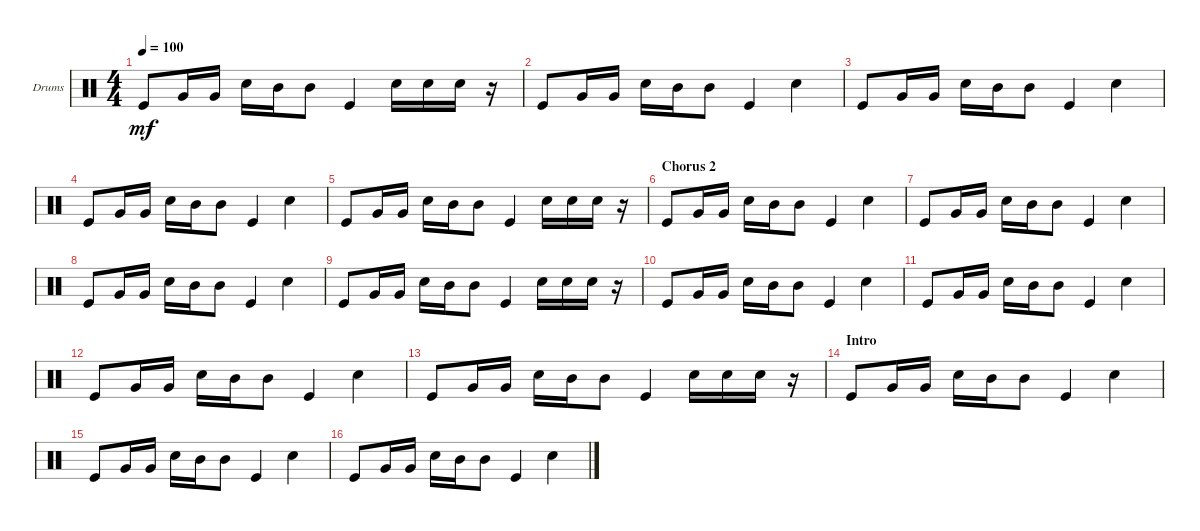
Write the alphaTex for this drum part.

\defaultSystemsLayout 4
\bracketExtendMode groupsimilarinstruments
\firstSystemTrackNameOrientation horizontal
\otherSystemsTrackNameOrientation horizontal
\track ("Dominic Howard" "Drums") {instrument percussion}
\staff {score}
\articulation defaults
\ts (4 4)
\tempo 100
\clef neutral
\ks c "Kick (hit)".8{dy mf} "Very Low Tom (hit)".16 "Very Low Tom (hit)".16 "Snare (hit) 2".16 "Mid Tom (hit)".16 "Mid Tom (hit)".8 "Kick (hit)".4 "Snare (hit) 2".16 "Snare (hit) 2".16 "Snare (hit) 2".16
r.16 |
"Kick (hit)".8 "Very Low Tom (hit)".16 "Very Low Tom (hit)".16 "Snare (hit) 2".16 "Mid Tom (hit)".16 "Mid Tom (hit)".8 "Kick (hit)".4 "Snare (hit) 2".4 |
"Kick (hit)".8 "Very Low Tom (hit)".16 "Very Low Tom (hit)".16 "Snare (hit) 2".16 "Mid Tom (hit)".16 "Mid Tom (hit)".8 "Kick (hit)".4 "Snare (hit) 2".4 |
"Kick (hit)".8 "Very Low Tom (hit)".16 "Very Low Tom (hit)".16 "Snare (hit) 2".16 "Mid Tom (hit)".16 "Mid Tom (hit)".8 "Kick (hit)".4 "Snare (hit) 2".4 |
"Kick (hit)".8 "Very Low Tom (hit)".16 "Very Low Tom (hit)".16 "Snare (hit) 2".16 "Mid Tom (hit)".16 "Mid Tom (hit)".8 "Kick (hit)".4 "Snare (hit) 2".16 "Snare (hit) 2".16 "Snare (hit) 2".16 r.16 |
\section ("" "Chorus 2")
"Kick (hit)".8 "Very Low Tom (hit)".16 "Very Low Tom (hit)".16 "Snare (hit) 2".16 "Mid Tom (hit)".16 "Mid Tom (hit)".8 "Kick (hit)".4 "Snare (hit) 2".4 |
"Kick (hit)".8 "Very Low Tom (hit)".16 "Very Low Tom (hit)".16 "Snare (hit) 2".16 "Mid Tom (hit)".16 "Mid Tom (hit)".8 "Kick (hit)".4 "Snare (hit) 2".4 |
"Kick (hit)".8 "Very Low Tom (hit)".16 "Very Low Tom (hit)".16 "Snare (hit) 2".16 "Mid Tom (hit)".16 "Mid Tom (hit)".8 "Kick (hit)".4 "Snare (hit) 2".4 |
"Kick (hit)".8 "Very Low Tom (hit)".16 "Very Low Tom (hit)".16 "Snare (hit) 2".16 "Mid Tom (hit)".16 "Mid Tom (hit)".8 "Kick (hit)".4 "Snare (hit) 2".16 "Snare (hit) 2".16 "Snare (hit) 2".16 r.16 |
"Kick (hit)".8 "Very Low Tom (hit)".16 "Very Low Tom (hit)".16 "Snare (hit) 2".16 "Mid Tom (hit)".16 "Mid Tom (hit)".8 "Kick (hit)".4 "Snare (hit) 2".4 |
"Kick (hit)".8 "Very Low Tom (hit)".16 "Very Low Tom (hit)".16 "Snare (hit) 2".16 "Mid Tom (hit)".16 "Mid Tom (hit)".8 "Kick (hit)".4 "Snare (hit) 2".4 |
"Kick (hit)".8 "Very Low Tom (hit)".16 "Very Low Tom (hit)".16 "Snare (hit) 2".16 "Mid Tom (hit)".16 "Mid Tom (hit)".8 "Kick (hit)".4 "Snare (hit) 2".4 |
"Kick (hit)".8 "Very Low Tom (hit)".16 "Very Low Tom (hit)".16 "Snare (hit) 2".16 "Mid Tom (hit)".16 "Mid Tom (hit)".8 "Kick (hit)".4 "Snare (hit) 2".16 "Snare (hit) 2".16 "Snare (hit) 2".16 r.16 |
\section ("" "Intro")
"Kick (hit)".8 "Very Low Tom (hit)".16 "Very Low Tom (hit)".16 "Snare (hit) 2".16 "Mid Tom (hit)".16 "Mid Tom (hit)".8 "Kick (hit)".4 "Snare (hit) 2".4 |
"Kick (hit)".8 "Very Low Tom (hit)".16 "Very Low Tom (hit)".16 "Snare (hit) 2".16 "Mid Tom (hit)".16 "Mid Tom (hit)".8 "Kick (hit)".4 "Snare (hit) 2".4 |
"Kick (hit)".8 "Very Low Tom (hit)".16 "Very Low Tom (hit)".16 "Snare (hit) 2".16 "Mid Tom (hit)".16 "Mid Tom (hit)".8 "Kick (hit)".4 "Snare (hit) 2".4
